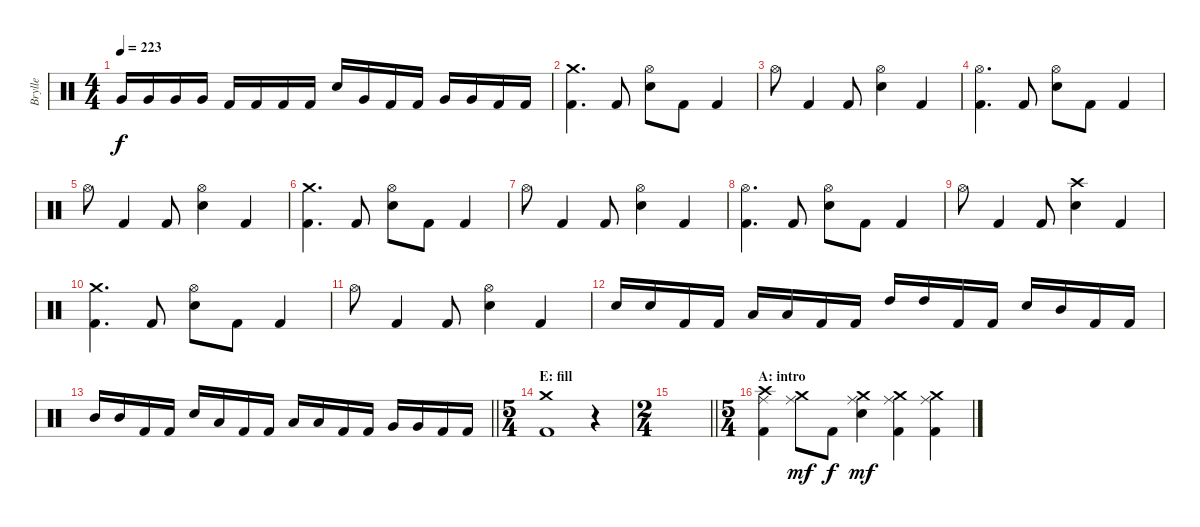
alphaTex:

\track ("Brylle" "Brylle") {instrument percussion}
\staff {score}
\articulation defaults
\ts (4 4)
\tempo 223
\clef neutral
\ks c "Very Low Tom (hit)".16{dy f} "Very Low Tom (hit)".16 "Very Low Tom (hit)".16 "Very Low Tom (hit)".16 "Kick (hit) 2".16 "Kick (hit) 2".16 "Kick (hit) 2".16 "Kick (hit) 2".16 "Electric Snare (hit)".16 "Very Low Tom (hit)".16 "Kick (hit) 2".16 "Kick (hit) 2".16 "Very Low Tom (hit)".16 "Very Low Tom (hit)".16 "Kick (hit) 2".16 "Kick (hit) 2".16
|
("Crash medium (hit)" "Kick (hit) 2").4{d} "Kick (hit) 2".8 ("Hi-Hat (open)" "Electric Snare (hit)").8 "Kick (hit) 2".8 "Kick (hit) 2".4 |
"Hi-Hat (open)".8 "Kick (hit) 2".4 "Kick (hit) 2".8 ("Hi-Hat (open)" "Electric Snare (hit)").4 "Kick (hit) 2".4 |
("Hi-Hat (open)" "Kick (hit) 2").4{d} "Kick (hit) 2".8 ("Hi-Hat (open)" "Electric Snare (hit)").8 "Kick (hit) 2".8 "Kick (hit) 2".4 |
"Hi-Hat (open)".8 "Kick (hit) 2".4 "Kick (hit) 2".8 ("Hi-Hat (open)" "Electric Snare (hit)").4 "Kick (hit) 2".4 |
("Crash medium (hit)" "Kick (hit) 2").4{d} "Kick (hit) 2".8 ("Hi-Hat (open)" "Electric Snare (hit)").8 "Kick (hit) 2".8 "Kick (hit) 2".4 |
"Hi-Hat (open)".8 "Kick (hit) 2".4 "Kick (hit) 2".8 ("Hi-Hat (open)" "Electric Snare (hit)").4 "Kick (hit) 2".4 |
("Hi-Hat (open)" "Kick (hit) 2").4{d} "Kick (hit) 2".8 ("Hi-Hat (open)" "Electric Snare (hit)").8 "Kick (hit) 2".8 "Kick (hit) 2".4 |
"Hi-Hat (open)".8 "Kick (hit) 2".4 "Kick (hit) 2".8 ("Crash high (hit)" "Electric Snare (hit)").4 "Kick (hit) 2".4 |
("Crash medium (hit)" "Kick (hit) 2").4{d} "Kick (hit) 2".8 ("Hi-Hat (open)" "Electric Snare (hit)").8 "Kick (hit) 2".8 "Kick (hit) 2".4 |
"Hi-Hat (open)".8 "Kick (hit) 2".4 "Kick (hit) 2".8 ("Hi-Hat (open)" "Electric Snare (hit)").4 "Kick (hit) 2".4 |
"Electric Snare (hit)".16 "Electric Snare (hit)".16 "Kick (hit) 2".16 "Kick (hit) 2".16 "Low Tom (hit)".16 "Low Tom (hit)".16 "Kick (hit) 2".16 "Kick (hit) 2".16 "High Tom (hit)".16 "High Tom (hit)".16 "Kick (hit) 2".16 "Kick (hit) 2".16 "Electric Snare (hit)".16 "Mid Tom (hit)".16 "Kick (hit) 2".16 "Kick (hit) 2".16 |
\barLineRight lightlight "Mid Tom (hit)".16 "Mid Tom (hit)".16 "Kick (hit) 2".16 "Kick (hit) 2".16 "Electric Snare (hit)".16 "Low Tom (hit)".16 "Kick (hit) 2".16 "Kick (hit) 2".16 "Low Tom (hit)".16 "Low Tom (hit)".16 "Kick (hit) 2".16 "Kick (hit) 2".16 "Very Low Tom (hit)".16 "Very Low Tom (hit)".16 "Kick (hit) 2".16 "Kick (hit) 2".16
|
\ts (5 4)
\section ("" "E: fill")
("Crash medium (hit)" "Kick (hit) 2").1 r.4 |
\ts (2 4)
\barLineRight lightlight
|
\ts (5 4)
\section ("" "A: intro")
("Crash high (hit)" "Ride (middle)" "Kick (hit) 2").4 ("Crash medium (hit)" "Ride (middle)").8{dy mf} "Kick (hit) 2".8{dy f} ("Crash medium (hit)" "Ride (middle)" "Electric Snare (hit)").4{dy mf} ("Crash medium (hit)" "Ride (middle)" "Kick (hit) 2").4 ("Crash medium (hit)" "Ride (middle)" "Kick (hit) 2").4
